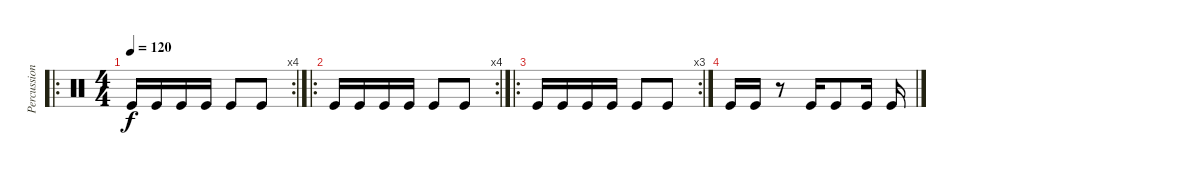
\track ("Percussion" "Percussion") {instrument percussion}
\staff {score}
\articulation defaults
\ro
\rc 4
\ts (4 4)
\tempo 120
\clef neutral
\ks c "Kick (hit)".16{dy f} "Kick (hit)".16 "Kick (hit)".16 "Kick (hit)".16 "Kick (hit)".8 "Kick (hit)".8
|
\ro
\rc 4 "Kick (hit)".16 "Kick (hit)".16 "Kick (hit)".16 "Kick (hit)".16 "Kick (hit)".8 "Kick (hit)".8
|
\ro
\rc 3 "Kick (hit)".16 "Kick (hit)".16 "Kick (hit)".16 "Kick (hit)".16 "Kick (hit)".8 "Kick (hit)".8
|
"Kick (hit)".16 "Kick (hit)".16 r.8 "Kick (hit)".16 "Kick (hit)".8 "Kick (hit)".16 "Kick (hit)".16
